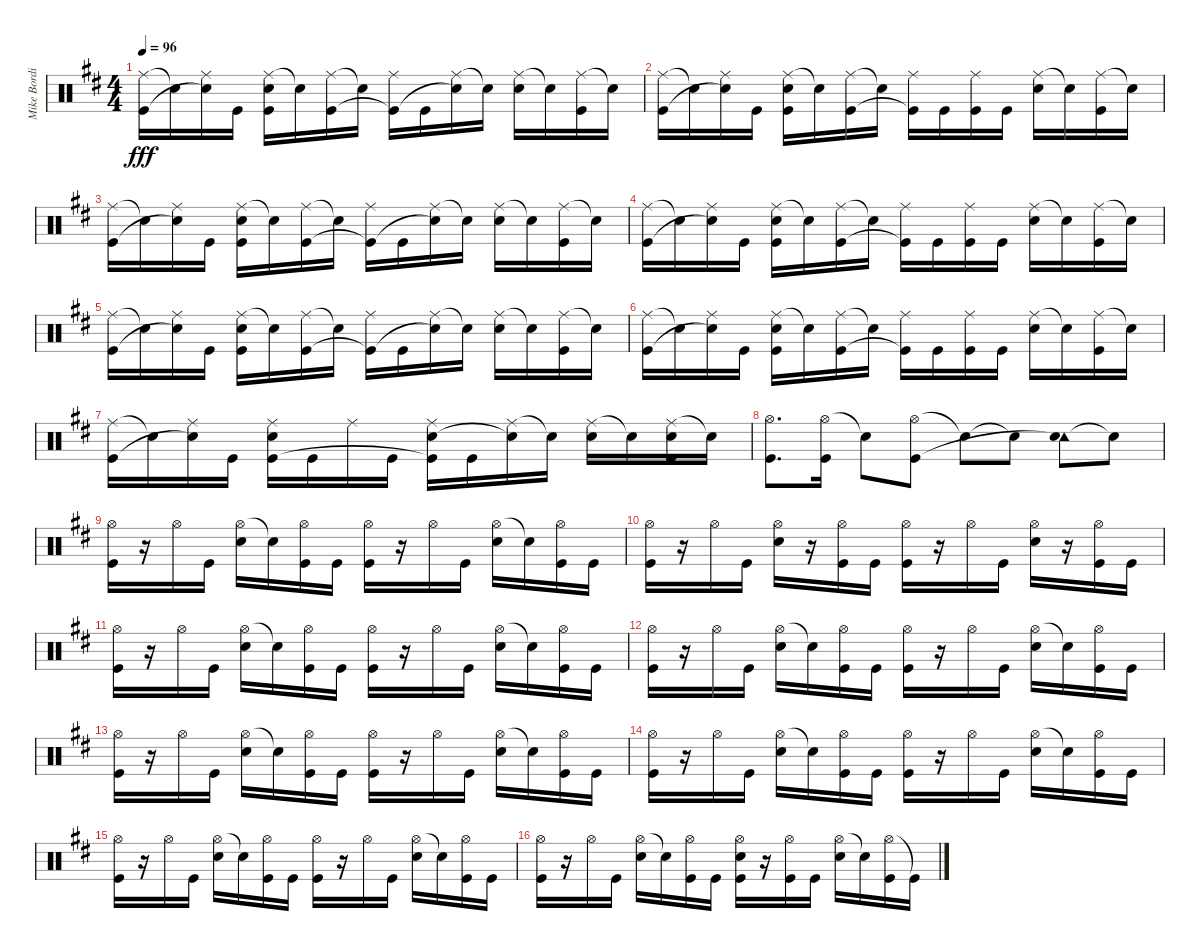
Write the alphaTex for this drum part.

\track ("Mike Bordin" "Mike Bordi") {instrument percussion}
\staff {score}
\articulation defaults
\ts (4 4)
\tempo 96
\clef neutral
\ks d
("Ride (middle)" "Kick (hit)").16{dy fff} "Snare (hit)"{t}.16 ("Ride (middle)" "Snare (hit)"{t}).16 "Kick (hit)".16 ("Ride (middle)" "Electric Snare (hit)" "Kick (hit)").16 "Snare (hit)"{t}.16 ("Ride (middle)" "Kick (hit)").16 "Snare (hit)"{t}.16 ("Ride (middle)" "Kick (hit)"{t}).16 "Kick (hit)".16 ("Ride (middle)" "Snare (hit)"{t}).16 "Snare (hit)"{t}.16 ("Ride (middle)" "Electric Snare (hit)").16 "Snare (hit)"{t}.16 ("Ride (middle)" "Kick (hit)").16 "Snare (hit)"{t}.16 |
("Ride (middle)" "Kick (hit)").16 "Snare (hit)"{t}.16 ("Ride (middle)" "Snare (hit)"{t}).16 "Kick (hit)".16 ("Ride (middle)" "Electric Snare (hit)" "Kick (hit)").16 "Snare (hit)"{t}.16 ("Ride (middle)" "Kick (hit)").16 "Snare (hit)"{t}.16 ("Ride (middle)" "Kick (hit)"{t}).16 "Kick (hit)".16 ("Ride (middle)" "Kick (hit)").16 "Kick (hit)".16 ("Ride (middle)" "Electric Snare (hit)").16 "Snare (hit)"{t}.16 ("Ride (middle)" "Kick (hit)").16 "Snare (hit)"{t}.16 |
("Ride (middle)" "Kick (hit)").16 "Snare (hit)"{t}.16 ("Ride (middle)" "Snare (hit)"{t}).16 "Kick (hit)".16 ("Ride (middle)" "Electric Snare (hit)" "Kick (hit)").16 "Snare (hit)"{t}.16 ("Ride (middle)" "Kick (hit)").16 "Snare (hit)"{t}.16 ("Ride (middle)" "Kick (hit)"{t}).16 "Kick (hit)".16 ("Ride (middle)" "Snare (hit)"{t}).16 "Snare (hit)"{t}.16 ("Ride (middle)" "Electric Snare (hit)").16 "Snare (hit)"{t}.16 ("Ride (middle)" "Kick (hit)").16 "Snare (hit)"{t}.16 |
("Ride (middle)" "Kick (hit)").16 "Snare (hit)"{t}.16 ("Ride (middle)" "Snare (hit)"{t}).16 "Kick (hit)".16 ("Ride (middle)" "Electric Snare (hit)" "Kick (hit)").16 "Snare (hit)"{t}.16 ("Ride (middle)" "Kick (hit)").16 "Snare (hit)"{t}.16 ("Ride (middle)" "Kick (hit)"{t}).16 "Kick (hit)".16 ("Ride (middle)" "Kick (hit)").16 "Kick (hit)".16 ("Ride (middle)" "Electric Snare (hit)").16 "Snare (hit)"{t}.16 ("Ride (middle)" "Kick (hit)").16 "Snare (hit)"{t}.16 |
("Ride (middle)" "Kick (hit)").16 "Snare (hit)"{t}.16 ("Ride (middle)" "Snare (hit)"{t}).16 "Kick (hit)".16 ("Ride (middle)" "Electric Snare (hit)" "Kick (hit)").16 "Snare (hit)"{t}.16 ("Ride (middle)" "Kick (hit)").16 "Snare (hit)"{t}.16 ("Ride (middle)" "Kick (hit)"{t}).16 "Kick (hit)".16 ("Ride (middle)" "Snare (hit)"{t}).16 "Snare (hit)"{t}.16 ("Ride (middle)" "Electric Snare (hit)").16 "Snare (hit)"{t}.16 ("Ride (middle)" "Kick (hit)").16 "Snare (hit)"{t}.16 |
("Ride (middle)" "Kick (hit)").16 "Snare (hit)"{t}.16 ("Ride (middle)" "Snare (hit)"{t}).16 "Kick (hit)".16 ("Ride (middle)" "Electric Snare (hit)" "Kick (hit)").16 "Snare (hit)"{t}.16 ("Ride (middle)" "Kick (hit)").16 "Snare (hit)"{t}.16 ("Ride (middle)" "Kick (hit)"{t}).16 "Kick (hit)".16 ("Ride (middle)" "Kick (hit)").16 "Kick (hit)".16 ("Ride (middle)" "Electric Snare (hit)").16 "Snare (hit)"{t}.16 ("Ride (middle)" "Kick (hit)").16 "Snare (hit)"{t}.16 |
("Ride (middle)" "Kick (hit)").16 "Snare (hit)"{t}.16 ("Ride (middle)" "Snare (hit)"{t}).16 "Kick (hit)".16 ("Ride (middle)" "Electric Snare (hit)" "Kick (hit)").16 "Kick (hit)".16 "Ride (middle)".16 "Kick (hit)".16 ("Ride (middle)" "Electric Snare (hit)" "Kick (hit)"{t}).16 "Kick (hit)".16 ("Ride (middle)" "Snare (hit)"{t}).16 "Snare (hit)"{t}.16 ("Ride (middle)" "Electric Snare (hit)").16 "Snare (hit)"{t}.16 ("Ride (middle)" "Electric Snare (hit)" "Kick (hit)").16 "Snare (hit)"{t}.16 |
("Hi-Hat (open)" "Kick (hit)").8{d} ("Hi-Hat (open)" "Kick (hit)").16 "Snare (hit)"{t}.8 ("Hi-Hat (open)" "Kick (hit)").8 "Snare (hit)"{t}.8 "Snare (hit)"{t}.8 ("Tambourine (hit)" "Snare (hit)"{t}).8 "Snare (hit)"{t}.8 |
("Hi-Hat (open)" "Kick (hit)").16 r.16 "Hi-Hat (open)".16 "Kick (hit)".16 ("Hi-Hat (open)" "Electric Snare (hit)").16 "Snare (hit)"{t}.16 ("Hi-Hat (open)" "Kick (hit)").16 "Kick (hit)".16 ("Hi-Hat (open)" "Kick (hit)").16 r.16 "Hi-Hat (open)".16 "Kick (hit)".16 ("Hi-Hat (open)" "Electric Snare (hit)").16 "Snare (hit)"{t}.16 ("Hi-Hat (open)" "Kick (hit)").16 "Kick (hit)".16 |
("Hi-Hat (open)" "Kick (hit)").16 r.16 "Hi-Hat (open)".16 "Kick (hit)".16 ("Hi-Hat (open)" "Electric Snare (hit)").16 r.16 ("Hi-Hat (open)" "Kick (hit)").16 "Kick (hit)".16 ("Hi-Hat (open)" "Kick (hit)").16 r.16 "Hi-Hat (open)".16 "Kick (hit)".16 ("Hi-Hat (open)" "Electric Snare (hit)").16 r.16 ("Hi-Hat (open)" "Kick (hit)").16 "Kick (hit)".16 |
("Hi-Hat (open)" "Kick (hit)").16 r.16 "Hi-Hat (open)".16 "Kick (hit)".16 ("Hi-Hat (open)" "Electric Snare (hit)").16 "Snare (hit)"{t}.16 ("Hi-Hat (open)" "Kick (hit)").16 "Kick (hit)".16 ("Hi-Hat (open)" "Kick (hit)").16 r.16 "Hi-Hat (open)".16 "Kick (hit)".16 ("Hi-Hat (open)" "Electric Snare (hit)").16 "Snare (hit)"{t}.16 ("Hi-Hat (open)" "Kick (hit)").16 "Kick (hit)".16 |
("Hi-Hat (open)" "Kick (hit)").16 r.16 "Hi-Hat (open)".16 "Kick (hit)".16 ("Hi-Hat (open)" "Electric Snare (hit)").16 "Snare (hit)"{t}.16 ("Hi-Hat (open)" "Kick (hit)").16 "Kick (hit)".16 ("Hi-Hat (open)" "Kick (hit)").16 r.16 "Hi-Hat (open)".16 "Kick (hit)".16 ("Hi-Hat (open)" "Electric Snare (hit)").16 "Snare (hit)"{t}.16 ("Hi-Hat (open)" "Kick (hit)").16 "Kick (hit)".16 |
("Hi-Hat (open)" "Kick (hit)").16 r.16 "Hi-Hat (open)".16 "Kick (hit)".16 ("Hi-Hat (open)" "Electric Snare (hit)").16 "Snare (hit)"{t}.16 ("Hi-Hat (open)" "Kick (hit)").16 "Kick (hit)".16 ("Hi-Hat (open)" "Kick (hit)").16 r.16 "Hi-Hat (open)".16 "Kick (hit)".16 ("Hi-Hat (open)" "Electric Snare (hit)").16 "Snare (hit)"{t}.16 ("Hi-Hat (open)" "Kick (hit)").16 "Kick (hit)".16 |
("Hi-Hat (open)" "Kick (hit)").16 r.16 "Hi-Hat (open)".16 "Kick (hit)".16 ("Hi-Hat (open)" "Electric Snare (hit)").16 "Snare (hit)"{t}.16 ("Hi-Hat (open)" "Kick (hit)").16 "Kick (hit)".16 ("Hi-Hat (open)" "Kick (hit)").16 r.16 "Hi-Hat (open)".16 "Kick (hit)".16 ("Hi-Hat (open)" "Electric Snare (hit)").16 "Snare (hit)"{t}.16 ("Hi-Hat (open)" "Kick (hit)").16 "Kick (hit)".16 |
("Hi-Hat (open)" "Kick (hit)").16 r.16 "Hi-Hat (open)".16 "Kick (hit)".16 ("Hi-Hat (open)" "Electric Snare (hit)").16 "Snare (hit)"{t}.16 ("Hi-Hat (open)" "Kick (hit)").16 "Kick (hit)".16 ("Hi-Hat (open)" "Kick (hit)").16 r.16 "Hi-Hat (open)".16 "Kick (hit)".16 ("Hi-Hat (open)" "Electric Snare (hit)").16 "Snare (hit)"{t}.16 ("Hi-Hat (open)" "Kick (hit)").16 "Kick (hit)".16 |
("Hi-Hat (open)" "Kick (hit)").16 r.16 "Hi-Hat (open)".16 "Kick (hit)".16 ("Hi-Hat (open)" "Electric Snare (hit)").16 "Snare (hit)"{t}.16 ("Hi-Hat (open)" "Kick (hit)").16 "Kick (hit)".16 ("Hi-Hat (open)" "Electric Snare (hit)" "Kick (hit)").16 r.16 ("Hi-Hat (open)" "Kick (hit)").16 "Kick (hit)".16 ("Hi-Hat (open)" "Electric Snare (hit)").16 "Snare (hit)"{t}.16 ("Hi-Hat (open)" "Kick (hit)").16 "Kick (hit)"{t}.16
